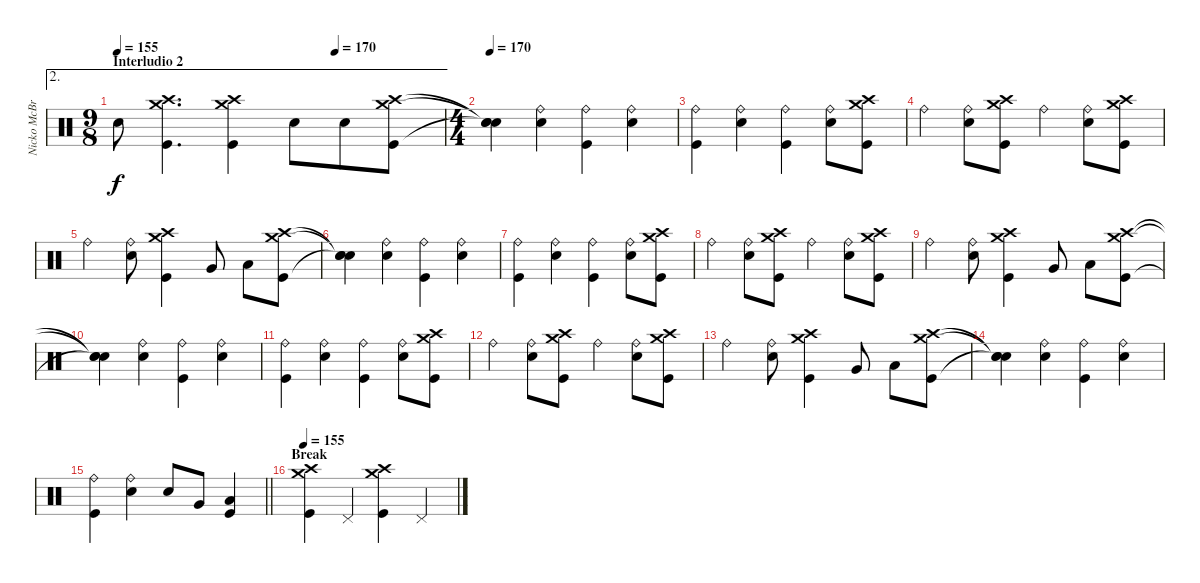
\track ("Nicko McBrain" "Nicko McBr") {instrument percussion}
\staff {score}
\articulation defaults
\ae 2
\ts (9 8)
\section ("" "Interludio 2")
\tempo 155
\tempo (170 0.6666666666666666)
\clef neutral
\ks c "Snare (hit) 2".8{dy f}
("Crash medium (hit)" "Crash high (hit)" "Kick (hit)").4{d} ("Crash medium (hit)" "Crash high (hit)" "Kick (hit)").4 "Snare (hit) 2".8 "Snare (hit) 2".8 ("Crash high (hit)" "Crash medium (hit)" "Kick (hit)").8 |
\ts (4 4)
\tempo 170
("Snare (hit)"{t} "Snare (hit)"{t} "Snare (hit)"{t}).4 ("Ride (bell)" "Snare (hit) 2").4 ("Ride (bell)" "Kick (hit)").4 ("Ride (bell)" "Snare (hit) 2").4 |
("Ride (bell)" "Kick (hit)").4 ("Ride (bell)" "Snare (hit) 2").4 ("Ride (bell)" "Kick (hit)").4 ("Ride (bell)" "Snare (hit) 2").8 ("Crash medium (hit)" "Crash high (hit)" "Kick (hit)").8 |
"Ride (bell)".4 ("Ride (bell)" "Snare (hit) 2").8 ("Crash medium (hit)" "Crash high (hit)" "Kick (hit)").8 "Ride (bell)".4 ("Ride (bell)" "Snare (hit) 2").8 ("Crash medium (hit)" "Crash high (hit)" "Kick (hit)").8 |
"Ride (bell)".4 ("Ride (bell)" "Snare (hit) 2").8 ("Crash medium (hit)" "Crash high (hit)" "Kick (hit)").4 "Very Low Tom (hit)".8 "Low Floor Tom (hit)".8 ("Crash medium (hit)" "Crash high (hit)" "Kick (hit)").8 |
("Snare (hit)"{t} "Snare (hit)"{t} "Snare (hit)"{t}).4 ("Ride (bell)" "Snare (hit) 2").4 ("Ride (bell)" "Kick (hit)").4 ("Ride (bell)" "Snare (hit) 2").4 |
("Ride (bell)" "Kick (hit)").4 ("Ride (bell)" "Snare (hit) 2").4 ("Ride (bell)" "Kick (hit)").4 ("Ride (bell)" "Snare (hit) 2").8 ("Crash medium (hit)" "Crash high (hit)" "Kick (hit)").8 |
"Ride (bell)".4 ("Ride (bell)" "Snare (hit) 2").8 ("Crash medium (hit)" "Crash high (hit)" "Kick (hit)").8 "Ride (bell)".4 ("Ride (bell)" "Snare (hit) 2").8 ("Crash medium (hit)" "Crash high (hit)" "Kick (hit)").8 |
"Ride (bell)".4 ("Ride (bell)" "Snare (hit) 2").8 ("Crash medium (hit)" "Crash high (hit)" "Kick (hit)").4 "Very Low Tom (hit)".8 "Low Floor Tom (hit)".8 ("Crash medium (hit)" "Crash high (hit)" "Kick (hit)").8 |
("Snare (hit)"{t} "Snare (hit)"{t} "Snare (hit)"{t}).4 ("Ride (bell)" "Snare (hit) 2").4 ("Ride (bell)" "Kick (hit)").4 ("Ride (bell)" "Snare (hit) 2").4 |
("Ride (bell)" "Kick (hit)").4 ("Ride (bell)" "Snare (hit) 2").4 ("Ride (bell)" "Kick (hit)").4 ("Ride (bell)" "Snare (hit) 2").8 ("Crash medium (hit)" "Crash high (hit)" "Kick (hit)").8 |
"Ride (bell)".4 ("Ride (bell)" "Snare (hit) 2").8 ("Crash medium (hit)" "Crash high (hit)" "Kick (hit)").8 "Ride (bell)".4 ("Ride (bell)" "Snare (hit) 2").8 ("Crash medium (hit)" "Crash high (hit)" "Kick (hit)").8 |
"Ride (bell)".4 ("Ride (bell)" "Snare (hit) 2").8 ("Crash medium (hit)" "Crash high (hit)" "Kick (hit)").4 "Very Low Tom (hit)".8 "Low Floor Tom (hit)".8 ("Crash medium (hit)" "Crash high (hit)" "Kick (hit)").8 |
("Snare (hit)"{t} "Snare (hit)"{t} "Snare (hit)"{t}).4 ("Ride (bell)" "Snare (hit) 2").4 ("Ride (bell)" "Kick (hit)").4 ("Ride (bell)" "Snare (hit) 2").4 |
\barLineRight lightlight
("Ride (bell)" "Kick (hit)").4 ("Ride (bell)" "Snare (hit) 2").4 "Snare (hit) 2".8 "Very Low Tom (hit)".8 ("Low Floor Tom (hit)" "Kick (hit)").4 |
\section ("" "Break")
\tempo 155
("Crash medium (hit)" "Crash high (hit)" "Kick (hit)").4 "Pedal Hi-Hat (hit)".4 ("Crash medium (hit)" "Crash high (hit)" "Kick (hit)").4 "Pedal Hi-Hat (hit)".4
